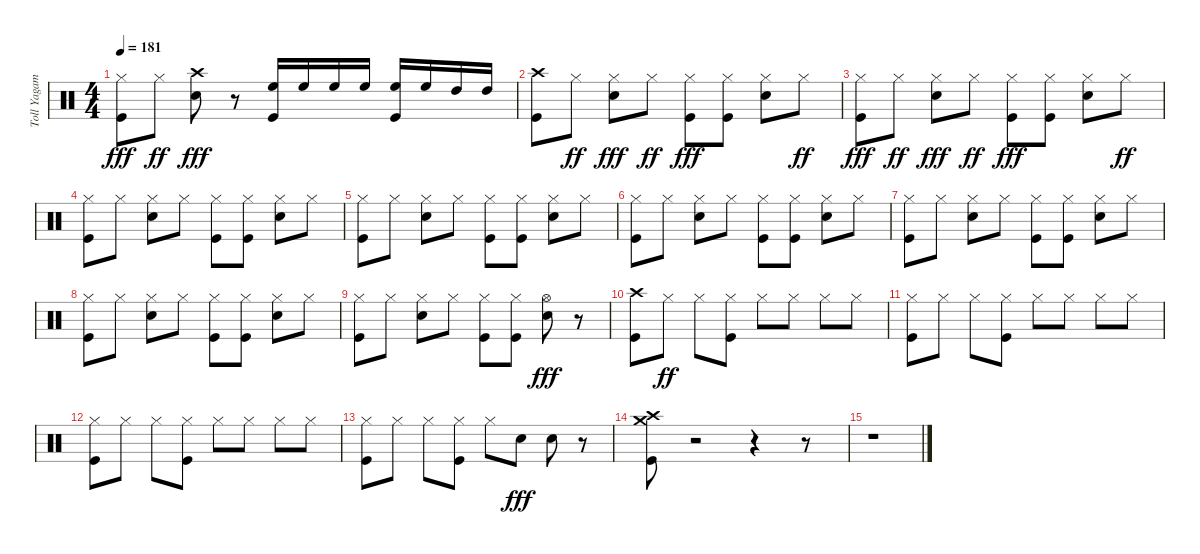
\track ("Toll Yagami" "Toll Yagam") {instrument percussion}
\staff {score}
\articulation defaults
\ts (4 4)
\tempo 181
\clef neutral
\ks c
("Hi-Hat (closed)" "Kick (hit)").8{dy fff} "Hi-Hat (closed)".8{dy ff} ("Crash high (hit)" "Snare (hit) 2").8{dy fff} r.8 ("Kick (hit)" "High Floor Tom (hit)").16 "High Floor Tom (hit)".16 "High Floor Tom (hit)".16 "High Floor Tom (hit)".16 ("Kick (hit)" "High Floor Tom (hit)").16 "High Floor Tom (hit)".16 "High Tom (hit)".16 "High Tom (hit)".16 |
("Crash high (hit)" "Kick (hit)").8 "Hi-Hat (closed)".8{dy ff} ("Hi-Hat (closed)" "Snare (hit) 2").8{dy fff} "Hi-Hat (closed)".8{dy ff} ("Hi-Hat (closed)" "Kick (hit)").8{dy fff} ("Hi-Hat (closed)" "Kick (hit)").8 ("Hi-Hat (closed)" "Snare (hit) 2").8 "Hi-Hat (closed)".8{dy ff} |
("Hi-Hat (closed)" "Kick (hit)").8{dy fff} "Hi-Hat (closed)".8{dy ff} ("Hi-Hat (closed)" "Snare (hit) 2").8{dy fff} "Hi-Hat (closed)".8{dy ff} ("Hi-Hat (closed)" "Kick (hit)").8{dy fff} ("Hi-Hat (closed)" "Kick (hit)").8 ("Hi-Hat (closed)" "Snare (hit) 2").8 "Hi-Hat (closed)".8{dy ff} |
("Kick (hit)" "Hi-Hat (closed)").8 "Hi-Hat (closed)".8 ("Snare (hit) 2" "Hi-Hat (closed)").8 "Hi-Hat (closed)".8 ("Kick (hit)" "Hi-Hat (closed)").8 ("Kick (hit)" "Hi-Hat (closed)").8 ("Snare (hit) 2" "Hi-Hat (closed)").8 "Hi-Hat (closed)".8 |
("Kick (hit)" "Hi-Hat (closed)").8 "Hi-Hat (closed)".8 ("Snare (hit) 2" "Hi-Hat (closed)").8 "Hi-Hat (closed)".8 ("Kick (hit)" "Hi-Hat (closed)").8 ("Kick (hit)" "Hi-Hat (closed)").8 ("Snare (hit) 2" "Hi-Hat (closed)").8 "Hi-Hat (closed)".8 |
("Kick (hit)" "Hi-Hat (closed)").8 "Hi-Hat (closed)".8 ("Snare (hit) 2" "Hi-Hat (closed)").8 "Hi-Hat (closed)".8 ("Kick (hit)" "Hi-Hat (closed)").8 ("Kick (hit)" "Hi-Hat (closed)").8 ("Snare (hit) 2" "Hi-Hat (closed)").8 "Hi-Hat (closed)".8 |
("Kick (hit)" "Hi-Hat (closed)").8 "Hi-Hat (closed)".8 ("Snare (hit) 2" "Hi-Hat (closed)").8 "Hi-Hat (closed)".8 ("Kick (hit)" "Hi-Hat (closed)").8 ("Kick (hit)" "Hi-Hat (closed)").8 ("Snare (hit) 2" "Hi-Hat (closed)").8 "Hi-Hat (closed)".8 |
("Kick (hit)" "Hi-Hat (closed)").8 "Hi-Hat (closed)".8 ("Snare (hit) 2" "Hi-Hat (closed)").8 "Hi-Hat (closed)".8 ("Kick (hit)" "Hi-Hat (closed)").8 ("Kick (hit)" "Hi-Hat (closed)").8 ("Snare (hit) 2" "Hi-Hat (closed)").8 "Hi-Hat (closed)".8 |
("Kick (hit)" "Hi-Hat (closed)").8 "Hi-Hat (closed)".8 ("Snare (hit) 2" "Hi-Hat (closed)").8 "Hi-Hat (closed)".8 ("Kick (hit)" "Hi-Hat (closed)").8 ("Kick (hit)" "Hi-Hat (closed)").8 ("Snare (hit) 2" "Hi-Hat (open)").8{dy fff} r.8 |
("Kick (hit)" "Crash high (hit)").8 "Hi-Hat (closed)".8{dy ff} "Hi-Hat (closed)".8 ("Kick (hit)" "Hi-Hat (closed)").8 "Hi-Hat (closed)".8 "Hi-Hat (closed)".8 "Hi-Hat (closed)".8 "Hi-Hat (closed)".8 |
("Kick (hit)" "Hi-Hat (closed)").8 "Hi-Hat (closed)".8 "Hi-Hat (closed)".8 ("Kick (hit)" "Hi-Hat (closed)").8 "Hi-Hat (closed)".8 "Hi-Hat (closed)".8 "Hi-Hat (closed)".8 "Hi-Hat (closed)".8 |
("Kick (hit)" "Hi-Hat (closed)").8 "Hi-Hat (closed)".8 "Hi-Hat (closed)".8 ("Kick (hit)" "Hi-Hat (closed)").8 "Hi-Hat (closed)".8 "Hi-Hat (closed)".8 "Hi-Hat (closed)".8 "Hi-Hat (closed)".8 |
("Kick (hit)" "Hi-Hat (closed)").8 "Hi-Hat (closed)".8 "Hi-Hat (closed)".8 ("Kick (hit)" "Hi-Hat (closed)").8 "Hi-Hat (closed)".8 "Snare (hit) 2".8{dy fff} "Snare (hit) 2".8 r.8 |
("Kick (hit)" "Crash high (hit)" "Crash medium (hit)").8 r.2 r.4 r.8 |
r.1
